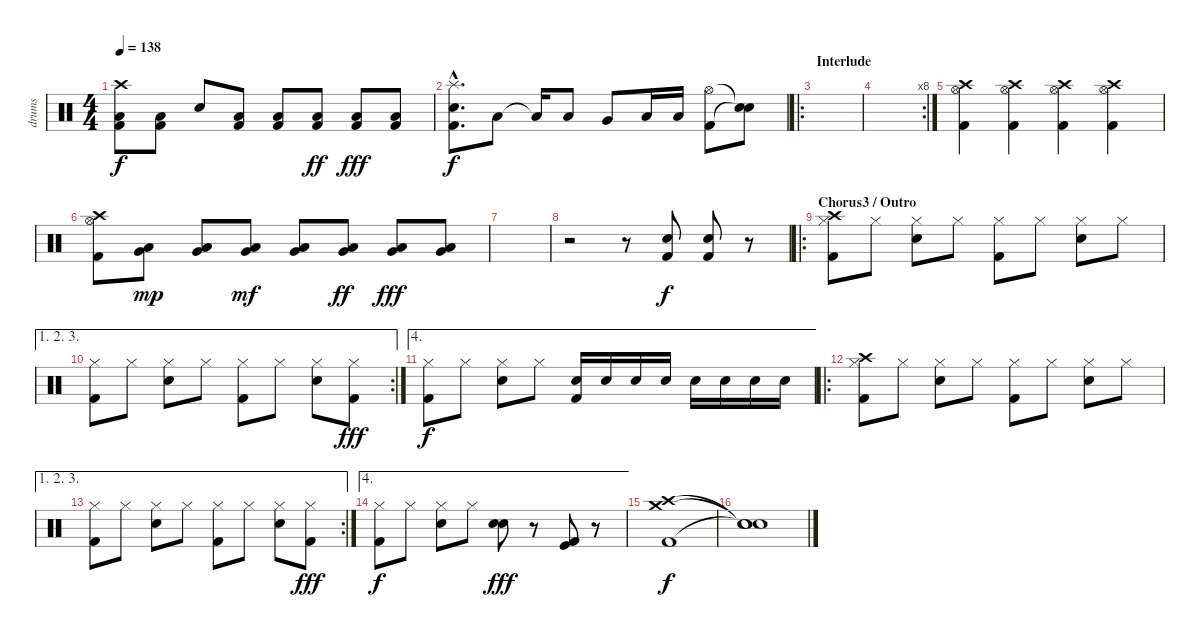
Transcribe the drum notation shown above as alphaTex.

\track ("drums" "drums") {instrument percussion}
\staff {score}
\articulation defaults
\ts (4 4)
\tempo 138
\clef neutral
\ks c
("Crash high (hit)" "Low Floor Tom (hit)" "Kick (hit) 2").8{dy f} ("Low Floor Tom (hit)" "Kick (hit) 2").8 "Electric Snare (hit)".8 ("Low Floor Tom (hit)" "Kick (hit) 2").8 ("Low Floor Tom (hit)" "Kick (hit) 2").8 ("Low Floor Tom (hit)" "Kick (hit) 2").8{dy ff} ("Low Floor Tom (hit)" "Kick (hit) 2").8{dy fff} ("Low Floor Tom (hit)" "Kick (hit) 2").8 |
("Splash (hit)"{hac} "Electric Snare (hit)"{hac} "Kick (hit) 2"{hac}).8{d dy f} "Low Tom (hit)".8 "Low Tom (hit)"{t}.16 "Low Tom (hit)".8 "Very Low Tom (hit)".8 "Low Floor Tom (hit)".16 "Low Floor Tom (hit)".16 ("Hi-Hat (open)" "Kick (hit) 2").8 ("Snare (hit)"{t} "Snare (hit)"{t}).8 |
\ro
\section ("" "Interlude")
|
\rc 8
|
("Crash high (hit)" "Hi-Hat (open)" "Kick (hit) 2").4 ("Crash high (hit)" "Hi-Hat (open)" "Kick (hit) 2").4 ("Crash high (hit)" "Hi-Hat (open)" "Kick (hit) 2").4 ("Crash high (hit)" "Hi-Hat (open)" "Kick (hit) 2").4 |
("Crash high (hit)" "Hi-Hat (open)" "Kick (hit) 2").8 ("Very Low Tom (hit)" "Low Floor Tom (hit)").8{dy mp} ("Very Low Tom (hit)" "Low Floor Tom (hit)").8 ("Very Low Tom (hit)" "Low Floor Tom (hit)").8{dy mf} ("Very Low Tom (hit)" "Low Floor Tom (hit)").8 ("Very Low Tom (hit)" "Low Floor Tom (hit)").8{dy ff} ("Very Low Tom (hit)" "Low Floor Tom (hit)").8{dy fff} ("Very Low Tom (hit)" "Low Floor Tom (hit)").8 |
|
r.2 r.8 ("Electric Snare (hit)" "Kick (hit) 2").8{dy f} ("Electric Snare (hit)" "Kick (hit) 2").8 r.8 |
\ro
\section ("" "Chorus3 / Outro")
("Crash high (hit)" "Hi-Hat (closed)" "Kick (hit) 2").8 "Hi-Hat (closed)".8 ("Hi-Hat (closed)" "Electric Snare (hit)").8 "Hi-Hat (closed)".8 ("Hi-Hat (closed)" "Kick (hit) 2").8 "Hi-Hat (closed)".8 ("Hi-Hat (closed)" "Electric Snare (hit)").8 "Hi-Hat (closed)".8 |
\ae (1 2 3)
\rc 2
("Hi-Hat (closed)" "Kick (hit) 2").8 "Hi-Hat (closed)".8 ("Hi-Hat (closed)" "Electric Snare (hit)").8 "Hi-Hat (closed)".8 ("Hi-Hat (closed)" "Kick (hit) 2").8 "Hi-Hat (closed)".8 ("Hi-Hat (closed)" "Electric Snare (hit)").8 ("Hi-Hat (closed)" "Kick (hit) 2").8{dy fff} |
\ae 4
("Hi-Hat (closed)" "Kick (hit) 2").8{dy f} "Hi-Hat (closed)".8 ("Hi-Hat (closed)" "Electric Snare (hit)").8 "Hi-Hat (closed)".8 ("Electric Snare (hit)" "Kick (hit) 2").16 "Electric Snare (hit)".16 "Electric Snare (hit)".16 "Electric Snare (hit)".16 "Electric Snare (hit)".16 "Electric Snare (hit)".16 "Electric Snare (hit)".16 "Electric Snare (hit)".16 |
\ro
("Crash high (hit)" "Hi-Hat (closed)" "Kick (hit) 2").8 "Hi-Hat (closed)".8 ("Hi-Hat (closed)" "Electric Snare (hit)").8 "Hi-Hat (closed)".8 ("Hi-Hat (closed)" "Kick (hit) 2").8 "Hi-Hat (closed)".8 ("Hi-Hat (closed)" "Electric Snare (hit)").8 "Hi-Hat (closed)".8 |
\ae (1 2 3)
\rc 2
("Hi-Hat (closed)" "Kick (hit) 2").8 "Hi-Hat (closed)".8 ("Hi-Hat (closed)" "Electric Snare (hit)").8 "Hi-Hat (closed)".8 ("Hi-Hat (closed)" "Kick (hit) 2").8 "Hi-Hat (closed)".8 ("Hi-Hat (closed)" "Electric Snare (hit)").8 ("Hi-Hat (closed)" "Kick (hit) 2").8{dy fff} |
\ae 4
("Hi-Hat (closed)" "Kick (hit) 2").8{dy f} "Hi-Hat (closed)".8 ("Hi-Hat (closed)" "Electric Snare (hit)").8 "Hi-Hat (closed)".8 ("Snare (hit) 2" "Electric Snare (hit)").8{dy fff} r.8 ("Kick (hit)" "Kick (hit) 2").8 r.8 |
("Crash medium (hit)" "Crash high (hit)" "Kick (hit) 2").1{dy f} |
("Snare (hit)"{t} "Snare (hit)"{t} "Snare (hit)"{t}).1
